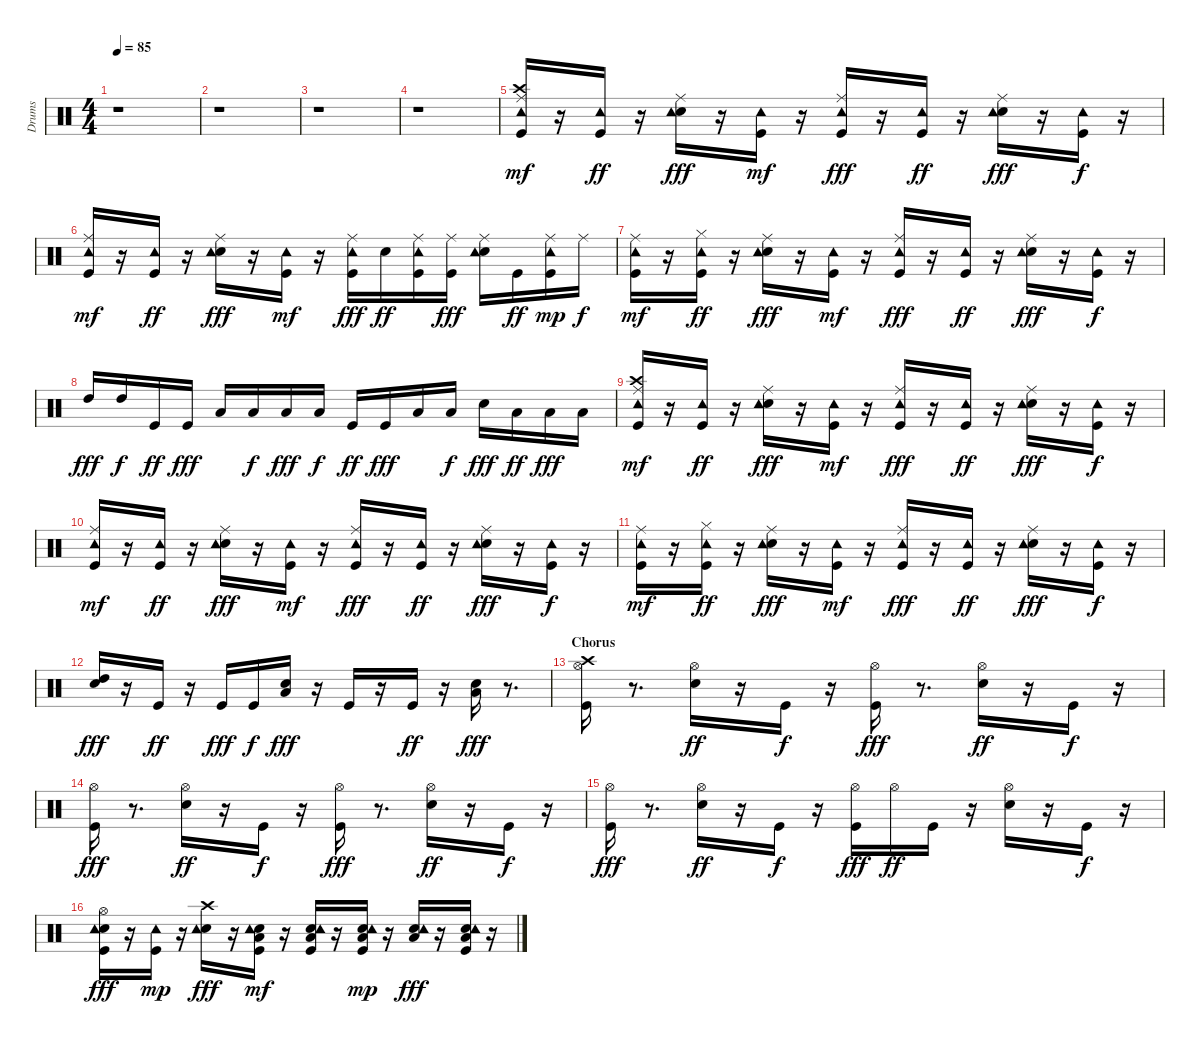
\track ("Drums    " "Drums    ") {instrument percussion}
\staff {score}
\articulation defaults
\ts (4 4)
\tempo 85
\clef neutral
\ks c
r.1{dy mf} |
r.1 |
r.1 |
r.1 |
("Kick (hit)" "Ride (middle)" "Crash high (hit)" "Tambourine (hit)").16 r.16 ("Kick (hit)" "Tambourine (hit)").16{dy ff} r.16 ("Snare (hit) 2" "Ride (middle)" "Tambourine (hit)").16{dy fff} r.16 ("Kick (hit)" "Tambourine (hit)").16{dy mf} r.16 ("Kick (hit)" "Ride (middle)" "Tambourine (hit)").16{dy fff} r.16 ("Kick (hit)" "Tambourine (hit)").16{dy ff} r.16 ("Snare (hit) 2" "Ride (middle)" "Tambourine (hit)").16{dy fff} r.16 ("Kick (hit)" "Tambourine (hit)").16{dy f} r.16 |
("Kick (hit)" "Ride (middle)" "Tambourine (hit)").16{dy mf} r.16 ("Kick (hit)" "Tambourine (hit)").16{dy ff} r.16 ("Snare (hit) 2" "Ride (middle)" "Tambourine (hit)").16{dy fff} r.16 ("Kick (hit)" "Tambourine (hit)").16{dy mf} r.16 ("Kick (hit)" "Ride (middle)" "Tambourine (hit)").16{dy fff} "Snare (hit) 2".16{dy ff} ("Kick (hit)" "Ride (middle)" "Tambourine (hit)").16 ("Kick (hit)" "Ride (middle)").16{dy fff} ("Snare (hit) 2" "Ride (middle)" "Tambourine (hit)").16 "Kick (hit)".16{dy ff} ("Kick (hit)" "Ride (middle)" "Tambourine (hit)").16{dy mp} "Ride (middle)".16{dy f} |
("Kick (hit)" "Ride (middle)" "Tambourine (hit)").16{dy mf} r.16 ("Kick (hit)" "Hi-Hat (closed)" "Tambourine (hit)").16{dy ff} r.16 ("Snare (hit) 2" "Ride (middle)" "Tambourine (hit)").16{dy fff} r.16 ("Kick (hit)" "Tambourine (hit)").16{dy mf} r.16 ("Kick (hit)" "Ride (middle)" "Tambourine (hit)").16{dy fff} r.16 ("Kick (hit)" "Tambourine (hit)").16{dy ff} r.16 ("Snare (hit) 2" "Ride (middle)" "Tambourine (hit)").16{dy fff} r.16 ("Kick (hit)" "Tambourine (hit)").16{dy f} r.16 |
"High Tom (hit)".16{dy fff} "High Tom (hit)".16{dy f} "Kick (hit)".16{dy ff} "Kick (hit)".16{dy fff} "Low Tom (hit)".16 "Low Tom (hit)".16{dy f} "Low Tom (hit)".16{dy fff} "Low Tom (hit)".16{dy f} "Kick (hit)".16{dy ff} "Kick (hit)".16{dy fff} "Low Floor Tom (hit)".16 "Low Floor Tom (hit)".16{dy f} "Snare (hit) 2".16{dy fff} "Low Floor Tom (hit)".16{dy ff} "Low Floor Tom (hit)".16{dy fff} "Low Floor Tom (hit)".16 |
("Kick (hit)" "Ride (middle)" "Crash high (hit)" "Tambourine (hit)").16{dy mf} r.16 ("Kick (hit)" "Tambourine (hit)").16{dy ff} r.16 ("Snare (hit) 2" "Ride (middle)" "Tambourine (hit)").16{dy fff} r.16 ("Kick (hit)" "Tambourine (hit)").16{dy mf} r.16 ("Kick (hit)" "Ride (middle)" "Tambourine (hit)").16{dy fff} r.16 ("Kick (hit)" "Tambourine (hit)").16{dy ff} r.16 ("Snare (hit) 2" "Ride (middle)" "Tambourine (hit)").16{dy fff} r.16 ("Kick (hit)" "Tambourine (hit)").16{dy f} r.16 |
("Kick (hit)" "Ride (middle)" "Tambourine (hit)").16{dy mf} r.16 ("Kick (hit)" "Tambourine (hit)").16{dy ff} r.16 ("Snare (hit) 2" "Ride (middle)" "Tambourine (hit)").16{dy fff} r.16 ("Kick (hit)" "Tambourine (hit)").16{dy mf} r.16 ("Kick (hit)" "Ride (middle)" "Tambourine (hit)").16{dy fff} r.16 ("Kick (hit)" "Tambourine (hit)").16{dy ff} r.16 ("Snare (hit) 2" "Ride (middle)" "Tambourine (hit)").16{dy fff} r.16 ("Kick (hit)" "Tambourine (hit)").16{dy f} r.16 |
("Kick (hit)" "Ride (middle)" "Tambourine (hit)").16{dy mf} r.16 ("Kick (hit)" "Hi-Hat (closed)" "Tambourine (hit)").16{dy ff} r.16 ("Snare (hit) 2" "Ride (middle)" "Tambourine (hit)").16{dy fff} r.16 ("Kick (hit)" "Tambourine (hit)").16{dy mf} r.16 ("Kick (hit)" "Ride (middle)" "Tambourine (hit)").16{dy fff} r.16 ("Kick (hit)" "Tambourine (hit)").16{dy ff} r.16 ("Snare (hit) 2" "Ride (middle)" "Tambourine (hit)").16{dy fff} r.16 ("Kick (hit)" "Tambourine (hit)").16{dy f} r.16 |
("Snare (hit) 2" "High Tom (hit)").16{dy fff} r.16 "Kick (hit)".16{dy ff} r.16 "Kick (hit)".16{dy fff} "Kick (hit)".16{dy f} ("Snare (hit) 2" "Low Tom (hit)").16{dy fff} r.16 "Kick (hit)".16 r.16 "Kick (hit)".16{dy ff} r.16 ("Snare (hit) 2" "Low Floor Tom (hit)").16{dy fff} r.8{d} |
\section ("" "Chorus")
("Kick (hit)" "Hi-Hat (open)" "Crash high (hit)").16 r.8{d} ("Snare (hit) 2" "Hi-Hat (open)").16{dy ff} r.16 "Kick (hit)".16{dy f} r.16 ("Kick (hit)" "Hi-Hat (open)").16{dy fff} r.8{d} ("Snare (hit) 2" "Hi-Hat (open)").16{dy ff} r.16 "Kick (hit)".16{dy f} r.16 |
("Kick (hit)" "Hi-Hat (open)").16{dy fff} r.8{d} ("Snare (hit) 2" "Hi-Hat (open)").16{dy ff} r.16 "Kick (hit)".16{dy f} r.16 ("Kick (hit)" "Hi-Hat (open)").16{dy fff} r.8{d} ("Snare (hit) 2" "Hi-Hat (open)").16{dy ff} r.16 "Kick (hit)".16{dy f} r.16 |
("Kick (hit)" "Hi-Hat (open)").16{dy fff} r.8{d} ("Snare (hit) 2" "Hi-Hat (open)").16{dy ff} r.16 "Kick (hit)".16{dy f} r.16 ("Kick (hit)" "Hi-Hat (open)").16{dy fff} "Hi-Hat (open)".16{dy ff} "Kick (hit)".16 r.16 ("Snare (hit) 2" "Hi-Hat (open)").16 r.16 "Kick (hit)".16{dy f} r.16 |
("Kick (hit)" "Snare (hit) 2" "Hi-Hat (open)" "Tambourine (hit)").16{dy fff} r.16 ("Kick (hit)" "Tambourine (hit)").16{dy mp} r.16 ("Snare (hit) 2" "Crash high (hit)" "Tambourine (hit)").16{dy fff} r.16 ("Kick (hit)" "Snare (hit) 2" "Low Floor Tom (hit)" "Tambourine (hit)").16{dy mf} r.16 ("Kick (hit)" "Snare (hit) 2" "Low Floor Tom (hit)" "Tambourine (hit)").16 r.16 ("Kick (hit)" "Snare (hit) 2" "Low Floor Tom (hit)" "Tambourine (hit)").16{dy mp} r.16 ("Snare (hit) 2" "Low Floor Tom (hit)" "Tambourine (hit)").16{dy fff} r.16 ("Kick (hit)" "Snare (hit) 2" "Low Floor Tom (hit)" "Tambourine (hit)").16 r.16
